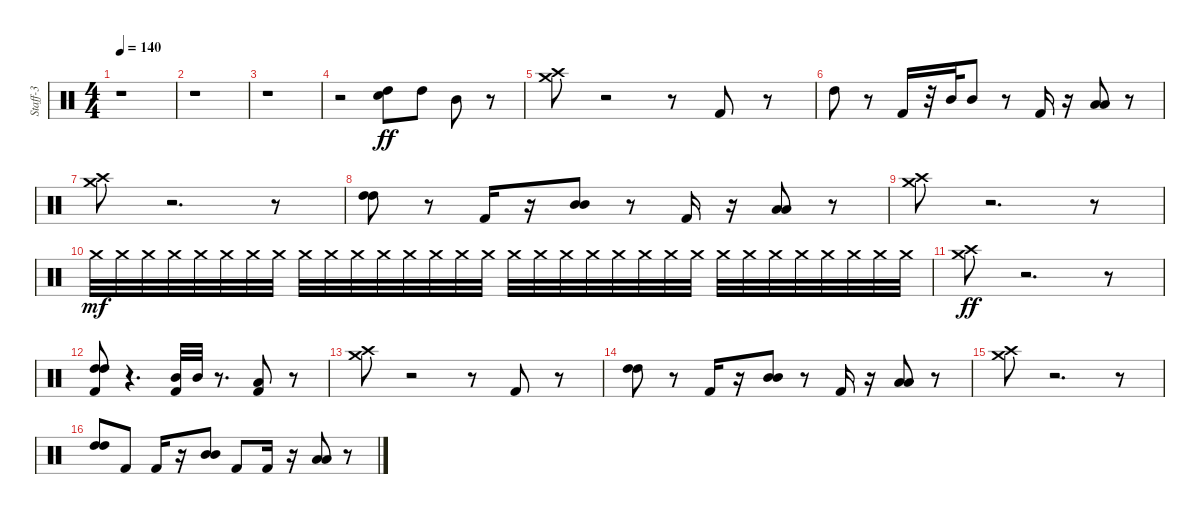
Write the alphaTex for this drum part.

\track ("Staff-3" "Staff-3") {instrument percussion}
\staff {score}
\articulation defaults
\ts (4 4)
\tempo 140
\clef neutral
\ks c
r.1{dy ff} |
r.1 |
r.1 |
r.2 ("Snare (hit) 2" "High Tom (hit)").8 "High Tom (hit)".8 "Mid Tom (hit)".8 r.8 |
("Crash high (hit)" "Crash medium (hit)").8 r.2 r.8 "Kick (hit) 2".8 r.8 |
"High Tom (hit)".8 r.8 "Kick (hit) 2".16 r.32 "Mid Tom (hit)".32 "Mid Tom (hit)".8 r.8 "Kick (hit) 2".16 r.16 ("Low Tom (hit)" "Low Tom (hit)").8 r.8 |
("Crash high (hit)" "Crash medium (hit)").8 r.2{d} r.8 |
("High Tom (hit)" "High Tom (hit)").8 r.8 "Kick (hit) 2".16 r.16 ("Mid Tom (hit)" "Mid Tom (hit)").8 r.8 "Kick (hit) 2".16 r.16 ("Low Tom (hit)" "Low Tom (hit)").8 r.8 |
("Crash high (hit)" "Crash medium (hit)").8 r.2{d} r.8 |
"Crash medium (hit)".32{dy mf volume 0} "Crash medium (hit)".32{volume 0} "Crash medium (hit)".32{volume 1} "Crash medium (hit)".32{volume 2} "Crash medium (hit)".32{volume 2} "Crash medium (hit)".32{volume 2} "Crash medium (hit)".32{volume 3} "Crash medium (hit)".32{volume 4} "Crash medium (hit)".32{volume 4} "Crash medium (hit)".32{volume 4} "Crash medium (hit)".32{volume 5} "Crash medium (hit)".32{volume 6} "Crash medium (hit)".32{volume 6} "Crash medium (hit)".32{volume 6} "Crash medium (hit)".32{volume 7} "Crash medium (hit)".32{volume 8} "Crash medium (hit)".32{volume 8} "Crash medium (hit)".32{volume 8} "Crash medium (hit)".32{volume 9} "Crash medium (hit)".32{volume 10} "Crash medium (hit)".32{volume 10} "Crash medium (hit)".32{volume 10} "Crash medium (hit)".32{volume 11} "Crash medium (hit)".32{volume 12} "Crash medium (hit)".32{volume 12} "Crash medium (hit)".32{volume 12} "Crash medium (hit)".32{volume 13} "Crash medium (hit)".32{volume 14} "Crash medium (hit)".32{volume 14} "Crash medium (hit)".32{volume 14} "Crash medium (hit)".32{volume 15} "Crash medium (hit)".32{volume 16} |
("Crash high (hit)" "Crash medium (hit)").8{dy ff volume 16} r.2{d} r.8 |
("High Tom (hit)" "Kick (hit) 2" "High Tom (hit)").8 r.4{d} ("Kick (hit) 2" "Mid Tom (hit)").32 "Mid Tom (hit)".32 r.8{d} ("Kick (hit) 2" "Low Tom (hit)").8 r.8 |
("Crash high (hit)" "Crash medium (hit)").8 r.2 r.8 "Kick (hit) 2".8 r.8 |
("High Tom (hit)" "High Tom (hit)").8 r.8 "Kick (hit) 2".16 r.16 ("Mid Tom (hit)" "Mid Tom (hit)").8 r.8 "Kick (hit) 2".16 r.16 ("Low Tom (hit)" "Low Tom (hit)").8 r.8 |
("Crash high (hit)" "Crash medium (hit)").8 r.2{d} r.8 |
("High Tom (hit)" "High Tom (hit)").8 "Kick (hit) 2".8 "Kick (hit) 2".16 r.16 ("Mid Tom (hit)" "Mid Tom (hit)").8 "Kick (hit) 2".8 "Kick (hit) 2".16 r.16 ("Low Tom (hit)" "Low Tom (hit)").8 r.8
